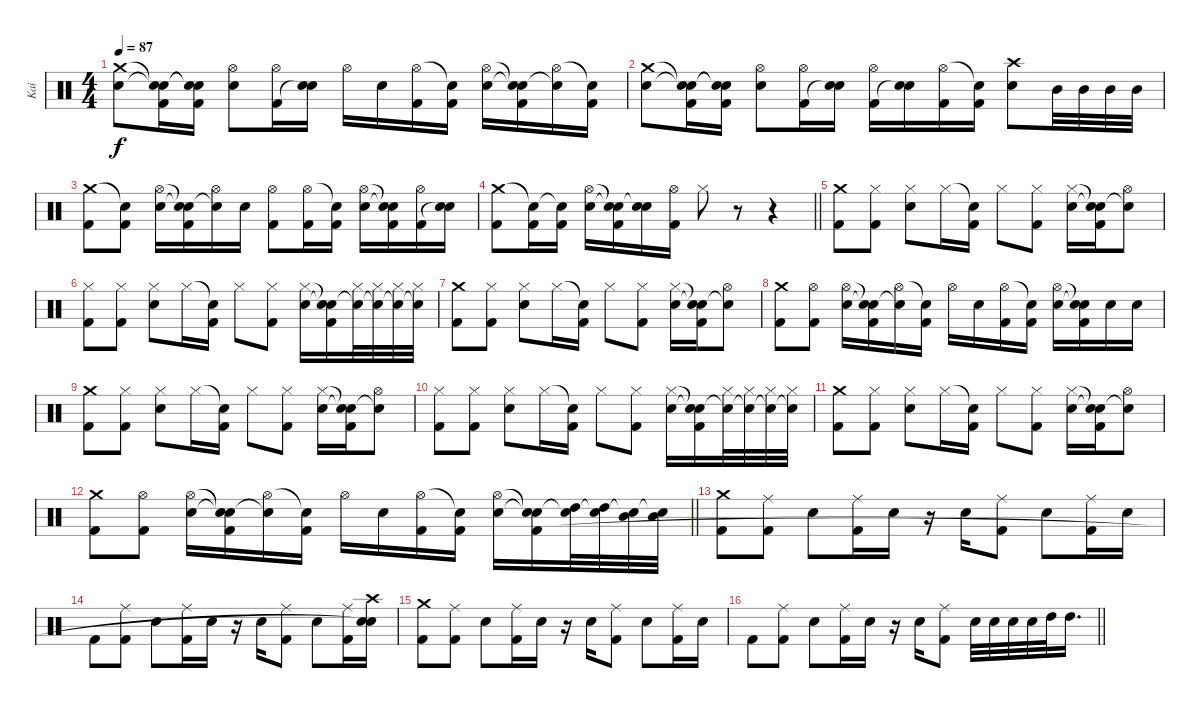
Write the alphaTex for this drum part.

\track ("Kai" "Kai") {instrument percussion}
\staff {score}
\articulation defaults
\ts (4 4)
\tempo 87
\clef neutral
\ks c
("Crash medium (hit)" "Snare (hit) 2").8{dy f} ("Snare (hit)"{t} "Snare (hit)"{t} "Kick (hit) 2").16 ("Snare (hit)"{t} "Snare (hit)"{t} "Kick (hit) 2").16 ("Hi-Hat (open)" "Snare (hit) 2").8 ("Hi-Hat (open)" "Kick (hit) 2").16 ("Snare (hit) 2" "Snare (hit)"{t}).16 "Hi-Hat (open)".16 "Snare (hit) 2".16 ("Hi-Hat (open)" "Kick (hit) 2").16 ("Snare (hit)"{t} "Kick (hit) 2").16 ("Hi-Hat (open)" "Snare (hit) 2").16 ("Snare (hit)"{t} "Snare (hit)"{t} "Kick (hit) 2").16 ("Hi-Hat (open)" "Snare (hit)"{t}).16 ("Snare (hit)"{t} "Kick (hit) 2").16 |
("Crash medium (hit)" "Snare (hit) 2").8 ("Snare (hit)"{t} "Snare (hit)"{t} "Kick (hit) 2").16 ("Snare (hit)"{t} "Snare (hit)"{t} "Kick (hit) 2").16 ("Hi-Hat (open)" "Snare (hit) 2").8 ("Hi-Hat (open)" "Kick (hit) 2").16 ("Snare (hit) 2" "Snare (hit)"{t}).16 ("Hi-Hat (open)" "Kick (hit) 2").16 ("Snare (hit) 2" "Snare (hit)"{t}).16 ("Hi-Hat (open)" "Kick (hit) 2").16 ("Snare (hit)"{t} "Kick (hit) 2").16 ("Crash high (hit)" "Snare (hit) 2").8 "Mid Tom (hit)".32 "Mid Tom (hit)".32 "Mid Tom (hit)".32 "Mid Tom (hit)".32 |
("Crash medium (hit)" "Kick (hit) 2").8 ("Snare (hit)"{t} "Kick (hit) 2").8 ("Hi-Hat (open)" "Snare (hit) 2").16 ("Snare (hit)"{t} "Snare (hit)"{t} "Kick (hit) 2").16 ("Hi-Hat (open)" "Snare (hit)"{t}).16 "Snare (hit) 2".16 ("Hi-Hat (open)" "Kick (hit) 2").8 ("Hi-Hat (open)" "Kick (hit) 2").16 ("Snare (hit)"{t} "Kick (hit) 2").16 ("Hi-Hat (open)" "Snare (hit) 2").16 ("Snare (hit)"{t} "Snare (hit)"{t} "Kick (hit) 2").16 ("Hi-Hat (open)" "Kick (hit) 2").16 ("Snare (hit) 2" "Snare (hit)"{t}).16 |
\barLineRight lightlight
("Crash medium (hit)" "Kick (hit) 2").8 ("Snare (hit)"{t} "Kick (hit) 2").16 ("Snare (hit)"{t} "Kick (hit) 2").16 ("Hi-Hat (open)" "Snare (hit) 2").16 ("Snare (hit)"{t} "Snare (hit)"{t} "Kick (hit) 2").16 ("Snare (hit) 2" "Snare (hit)"{t}).16 ("Hi-Hat (open)" "Kick (hit) 2").16 "Hi-Hat (closed)".8 r.8 r.4 |
("Crash medium (hit)" "Kick (hit) 2").8 ("Hi-Hat (closed)" "Kick (hit) 2").8 ("Hi-Hat (closed)" "Snare (hit) 2").8 "Hi-Hat (closed)".16 ("Snare (hit)"{t} "Kick (hit) 2").16 "Hi-Hat (closed)".8 ("Hi-Hat (closed)" "Kick (hit) 2").8 ("Hi-Hat (closed)" "Snare (hit) 2").16 ("Snare (hit)"{t} "Snare (hit)"{t} "Kick (hit) 2").16 ("Hi-Hat (open)" "Snare (hit)"{t}).8 |
("Hi-Hat (closed)" "Kick (hit) 2").8 ("Hi-Hat (closed)" "Kick (hit) 2").8 ("Hi-Hat (closed)" "Snare (hit) 2").8 "Hi-Hat (closed)".16 ("Snare (hit)"{t} "Kick (hit) 2").16 "Hi-Hat (closed)".8 ("Hi-Hat (closed)" "Kick (hit) 2").8 ("Hi-Hat (closed)" "Snare (hit) 2").16 ("Snare (hit)"{t} "Snare (hit)"{t} "Kick (hit) 2").16 ("Hi-Hat (closed)" "Snare (hit)"{t}).32 ("Hi-Hat (closed)" "Snare (hit)"{t}).32 ("Hi-Hat (closed)" "Snare (hit)"{t}).32 ("Hi-Hat (closed)" "Snare (hit)"{t}).32 |
("Crash medium (hit)" "Kick (hit) 2").8 ("Hi-Hat (closed)" "Kick (hit) 2").8 ("Hi-Hat (closed)" "Snare (hit) 2").8 "Hi-Hat (closed)".16 ("Snare (hit)"{t} "Kick (hit) 2").16 "Hi-Hat (closed)".8 ("Hi-Hat (closed)" "Kick (hit) 2").8 ("Hi-Hat (closed)" "Snare (hit) 2").16 ("Snare (hit)"{t} "Snare (hit)"{t} "Kick (hit) 2").16 ("Hi-Hat (open)" "Snare (hit)"{t}).8 |
("Crash medium (hit)" "Kick (hit) 2").8 ("Hi-Hat (open)" "Kick (hit) 2").8 ("Hi-Hat (open)" "Snare (hit) 2").16 ("Snare (hit)"{t} "Snare (hit)"{t} "Kick (hit) 2").16 ("Hi-Hat (open)" "Snare (hit)"{t}).16 ("Snare (hit)"{t} "Kick (hit) 2").16 "Hi-Hat (open)".16 "Snare (hit) 2".16 ("Hi-Hat (open)" "Kick (hit) 2").16 ("Snare (hit)"{t} "Kick (hit) 2").16 ("Hi-Hat (open)" "Snare (hit) 2").16 ("Snare (hit)"{t} "Snare (hit)"{t} "Kick (hit) 2").16 "Snare (hit) 2".16 "Snare (hit) 2".16 |
("Crash medium (hit)" "Kick (hit) 2").8 ("Hi-Hat (closed)" "Kick (hit) 2").8 ("Hi-Hat (closed)" "Snare (hit) 2").8 "Hi-Hat (closed)".16 ("Snare (hit)"{t} "Kick (hit) 2").16 "Hi-Hat (closed)".8 ("Hi-Hat (closed)" "Kick (hit) 2").8 ("Hi-Hat (closed)" "Snare (hit) 2").16 ("Snare (hit)"{t} "Snare (hit)"{t} "Kick (hit) 2").16 ("Hi-Hat (open)" "Snare (hit)"{t}).8 |
("Hi-Hat (closed)" "Kick (hit) 2").8 ("Hi-Hat (closed)" "Kick (hit) 2").8 ("Hi-Hat (closed)" "Snare (hit) 2").8 "Hi-Hat (closed)".16 ("Snare (hit)"{t} "Kick (hit) 2").16 "Hi-Hat (closed)".8 ("Hi-Hat (closed)" "Kick (hit) 2").8 ("Hi-Hat (closed)" "Snare (hit) 2").16 ("Snare (hit)"{t} "Snare (hit)"{t} "Kick (hit) 2").16 ("Hi-Hat (closed)" "Snare (hit)"{t}).32 ("Hi-Hat (closed)" "Snare (hit)"{t}).32 ("Hi-Hat (closed)" "Snare (hit)"{t}).32 ("Hi-Hat (closed)" "Snare (hit)"{t}).32 |
("Crash medium (hit)" "Kick (hit) 2").8 ("Hi-Hat (closed)" "Kick (hit) 2").8 ("Hi-Hat (closed)" "Snare (hit) 2").8 "Hi-Hat (closed)".16 ("Snare (hit)"{t} "Kick (hit) 2").16 "Hi-Hat (closed)".8 ("Hi-Hat (closed)" "Kick (hit) 2").8 ("Hi-Hat (closed)" "Snare (hit) 2").16 ("Snare (hit)"{t} "Snare (hit)"{t} "Kick (hit) 2").16 ("Hi-Hat (open)" "Snare (hit)"{t}).8 |
\barLineRight lightlight
("Crash medium (hit)" "Kick (hit) 2").8 ("Hi-Hat (open)" "Kick (hit) 2").8 ("Hi-Hat (open)" "Snare (hit) 2").16 ("Snare (hit)"{t} "Snare (hit)"{t} "Kick (hit) 2").16 ("Hi-Hat (open)" "Snare (hit)"{t}).16 ("Snare (hit)"{t} "Kick (hit) 2").16 "Hi-Hat (open)".16 "Snare (hit) 2".16 ("Hi-Hat (open)" "Kick (hit) 2").16 ("Snare (hit)"{t} "Kick (hit) 2").16 ("Hi-Hat (open)" "Snare (hit) 2").16 ("Snare (hit)"{t} "Snare (hit)"{t} "Kick (hit) 2").16 ("High Tom (hit)" "Snare (hit)"{t}).32 ("High Tom (hit)" "Snare (hit)"{t}).32 ("Mid Tom (hit)" "Snare (hit)"{t}).32 ("Mid Tom (hit)" "Snare (hit)"{t}).32 |
("Crash medium (hit)" "Kick (hit) 2").8 ("Ride (middle)" "Kick (hit) 2").8 "Snare (hit) 2".8 ("Ride (middle)" "Kick (hit) 2").16 "Snare (hit) 2".16 r.16 "Snare (hit) 2".16 ("Ride (middle)" "Kick (hit) 2").8 "Snare (hit) 2".8 ("Ride (middle)" "Kick (hit) 2").16 "Snare (hit) 2".16 |
"Kick (hit) 2".8 ("Ride (middle)" "Kick (hit) 2").8 "Snare (hit) 2".8 ("Ride (middle)" "Kick (hit) 2").16 "Snare (hit) 2".16 r.16 "Snare (hit) 2".16 ("Ride (middle)" "Kick (hit) 2").8 "Snare (hit) 2".8 ("Ride (middle)" "Kick (hit) 2").16 ("Crash high (hit)" "Snare (hit) 2" "Snare (hit)"{t}).16 |
("Crash medium (hit)" "Kick (hit) 2").8 ("Ride (middle)" "Kick (hit) 2").8 "Snare (hit) 2".8 ("Ride (middle)" "Kick (hit) 2").16 "Snare (hit) 2".16 r.16 "Snare (hit) 2".16 ("Ride (middle)" "Kick (hit) 2").8 "Snare (hit) 2".8 ("Ride (middle)" "Kick (hit) 2").16 "Snare (hit) 2".16 |
\barLineRight lightlight "Kick (hit) 2".8
("Ride (middle)" "Kick (hit) 2").8 "Snare (hit) 2".8 ("Ride (middle)" "Kick (hit) 2").16 "Snare (hit) 2".16 r.16 "Snare (hit) 2".16 ("Ride (middle)" "Kick (hit) 2").8 "Snare (hit) 2".32 "Snare (hit) 2".32 "Snare (hit) 2".32 "Snare (hit) 2".32 "High Tom (hit)".32 "High Tom (hit)".16{d}
